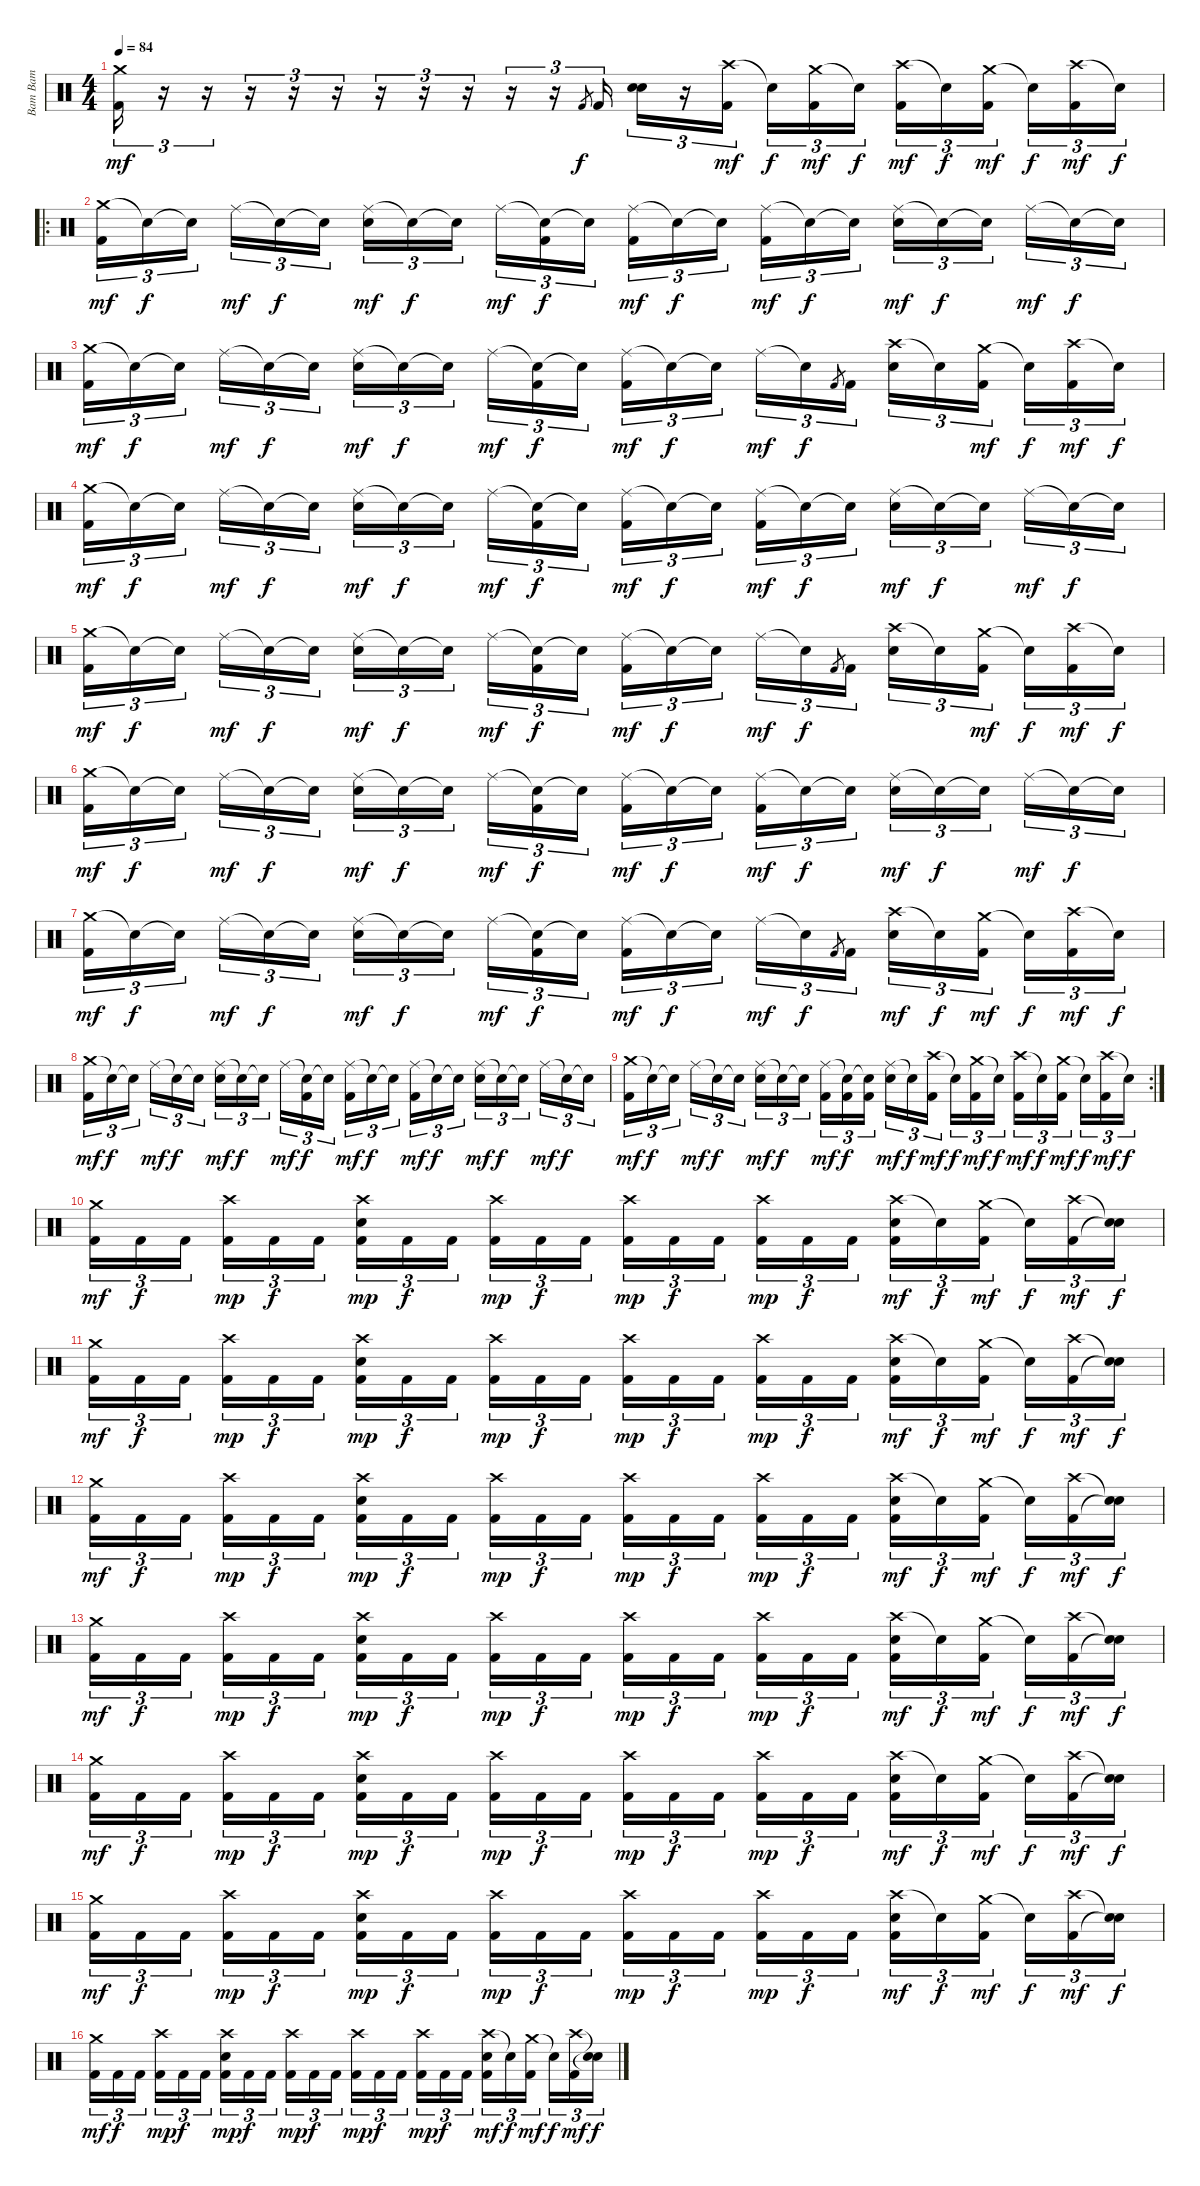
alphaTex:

\track ("Bam Bam" "Bam Bam") {instrument percussion}
\staff {score}
\articulation defaults
\ts (4 4)
\tempo 84
\clef neutral
\ks c
("Crash medium (hit)" "Kick (hit) 2").16{tu (3 2) dy mf} r.16{tu (3 2)} r.16{tu (3 2)} r.16{tu (3 2)} r.16{tu (3 2)} r.16{tu (3 2)} r.16{tu (3 2)} r.16{tu (3 2)} r.16{tu (3 2)} r.16{tu (3 2)} r.16{tu (3 2)} "Kick (hit) 2".8{gr dy f} "Kick (hit) 2".16{tu (3 2)} ("Electric Snare (hit)" "Electric Snare (hit)").16{tu (3 2)} r.16{tu (3 2)} ("Crash high (hit)" "Kick (hit) 2").16{tu (3 2) dy mf beam splitsecondary} "Snare (hit)"{t}.16{tu (3 2) dy f} ("Crash medium (hit)" "Kick (hit) 2").16{tu (3 2) dy mf} "Snare (hit)"{t}.16{tu (3 2) dy f} ("Crash high (hit)" "Kick (hit) 2").16{tu (3 2) dy mf} "Snare (hit)"{t}.16{tu (3 2) dy f} ("Crash medium (hit)" "Kick (hit) 2").16{tu (3 2) dy mf beam splitsecondary} "Snare (hit)"{t}.16{tu (3 2) dy f} ("Crash high (hit)" "Kick (hit) 2").16{tu (3 2) dy mf} "Snare (hit)"{t}.16{tu (3 2) dy f} |
\ro
("Crash medium (hit)" "Kick (hit) 2").16{tu (3 2) dy mf} "Snare (hit)"{t}.16{tu (3 2) dy f} "Snare (hit)"{t}.16{tu (3 2) beam splitsecondary} "Ride (middle)".16{tu (3 2) dy mf} "Snare (hit)"{t}.16{tu (3 2) dy f} "Snare (hit)"{t}.16{tu (3 2)} ("Ride (middle)" "Electric Snare (hit)").16{tu (3 2) dy mf} "Snare (hit)"{t}.16{tu (3 2) dy f} "Snare (hit)"{t}.16{tu (3 2) beam splitsecondary} "Ride (middle)".16{tu (3 2) dy mf} ("Snare (hit)"{t} "Kick (hit) 2").16{tu (3 2) dy f} "Snare (hit)"{t}.16{tu (3 2)} ("Ride (middle)" "Kick (hit) 2").16{tu (3 2) dy mf} "Snare (hit)"{t}.16{tu (3 2) dy f} "Snare (hit)"{t}.16{tu (3 2) beam splitsecondary} ("Ride (middle)" "Kick (hit) 2").16{tu (3 2) dy mf} "Snare (hit)"{t}.16{tu (3 2) dy f} "Snare (hit)"{t}.16{tu (3 2)} ("Ride (middle)" "Electric Snare (hit)").16{tu (3 2) dy mf} "Snare (hit)"{t}.16{tu (3 2) dy f} "Snare (hit)"{t}.16{tu (3 2) beam splitsecondary} "Ride (middle)".16{tu (3 2) dy mf} "Snare (hit)"{t}.16{tu (3 2) dy f} "Snare (hit)"{t}.16{tu (3 2)} |
("Crash medium (hit)" "Kick (hit) 2").16{tu (3 2) dy mf} "Snare (hit)"{t}.16{tu (3 2) dy f} "Snare (hit)"{t}.16{tu (3 2) beam splitsecondary} "Ride (middle)".16{tu (3 2) dy mf} "Snare (hit)"{t}.16{tu (3 2) dy f} "Snare (hit)"{t}.16{tu (3 2)} ("Ride (middle)" "Electric Snare (hit)").16{tu (3 2) dy mf} "Snare (hit)"{t}.16{tu (3 2) dy f} "Snare (hit)"{t}.16{tu (3 2) beam splitsecondary} "Ride (middle)".16{tu (3 2) dy mf} ("Snare (hit)"{t} "Kick (hit) 2").16{tu (3 2) dy f} "Snare (hit)"{t}.16{tu (3 2)} ("Ride (middle)" "Kick (hit) 2").16{tu (3 2) dy mf} "Snare (hit)"{t}.16{tu (3 2) dy f} "Snare (hit)"{t}.16{tu (3 2) beam splitsecondary} "Ride (middle)".16{tu (3 2) dy mf} "Snare (hit)"{t}.16{tu (3 2) dy f} "Kick (hit) 2".8{gr} "Kick (hit) 2".16{tu (3 2)} ("Crash high (hit)" "Electric Snare (hit)").16{tu (3 2)} "Snare (hit)"{t}.16{tu (3 2)} ("Crash medium (hit)" "Kick (hit) 2").16{tu (3 2) dy mf beam splitsecondary} "Snare (hit)"{t}.16{tu (3 2) dy f} ("Crash high (hit)" "Kick (hit) 2").16{tu (3 2) dy mf} "Snare (hit)"{t}.16{tu (3 2) dy f} |
("Crash medium (hit)" "Kick (hit) 2").16{tu (3 2) dy mf} "Snare (hit)"{t}.16{tu (3 2) dy f} "Snare (hit)"{t}.16{tu (3 2) beam splitsecondary} "Ride (middle)".16{tu (3 2) dy mf} "Snare (hit)"{t}.16{tu (3 2) dy f} "Snare (hit)"{t}.16{tu (3 2)} ("Ride (middle)" "Electric Snare (hit)").16{tu (3 2) dy mf} "Snare (hit)"{t}.16{tu (3 2) dy f} "Snare (hit)"{t}.16{tu (3 2) beam splitsecondary} "Ride (middle)".16{tu (3 2) dy mf} ("Snare (hit)"{t} "Kick (hit) 2").16{tu (3 2) dy f} "Snare (hit)"{t}.16{tu (3 2)} ("Ride (middle)" "Kick (hit) 2").16{tu (3 2) dy mf} "Snare (hit)"{t}.16{tu (3 2) dy f} "Snare (hit)"{t}.16{tu (3 2) beam splitsecondary} ("Ride (middle)" "Kick (hit) 2").16{tu (3 2) dy mf} "Snare (hit)"{t}.16{tu (3 2) dy f} "Snare (hit)"{t}.16{tu (3 2)} ("Ride (middle)" "Electric Snare (hit)").16{tu (3 2) dy mf} "Snare (hit)"{t}.16{tu (3 2) dy f} "Snare (hit)"{t}.16{tu (3 2) beam splitsecondary} "Ride (middle)".16{tu (3 2) dy mf} "Snare (hit)"{t}.16{tu (3 2) dy f} "Snare (hit)"{t}.16{tu (3 2)} |
("Crash medium (hit)" "Kick (hit) 2").16{tu (3 2) dy mf} "Snare (hit)"{t}.16{tu (3 2) dy f} "Snare (hit)"{t}.16{tu (3 2) beam splitsecondary} "Ride (middle)".16{tu (3 2) dy mf} "Snare (hit)"{t}.16{tu (3 2) dy f} "Snare (hit)"{t}.16{tu (3 2)} ("Ride (middle)" "Electric Snare (hit)").16{tu (3 2) dy mf} "Snare (hit)"{t}.16{tu (3 2) dy f} "Snare (hit)"{t}.16{tu (3 2) beam splitsecondary} "Ride (middle)".16{tu (3 2) dy mf} ("Snare (hit)"{t} "Kick (hit) 2").16{tu (3 2) dy f} "Snare (hit)"{t}.16{tu (3 2)} ("Ride (middle)" "Kick (hit) 2").16{tu (3 2) dy mf} "Snare (hit)"{t}.16{tu (3 2) dy f} "Snare (hit)"{t}.16{tu (3 2) beam splitsecondary} "Ride (middle)".16{tu (3 2) dy mf} "Snare (hit)"{t}.16{tu (3 2) dy f} "Kick (hit) 2".8{gr} "Kick (hit) 2".16{tu (3 2)} ("Crash high (hit)" "Electric Snare (hit)").16{tu (3 2)} "Snare (hit)"{t}.16{tu (3 2)} ("Crash medium (hit)" "Kick (hit) 2").16{tu (3 2) dy mf beam splitsecondary} "Snare (hit)"{t}.16{tu (3 2) dy f} ("Crash high (hit)" "Kick (hit) 2").16{tu (3 2) dy mf} "Snare (hit)"{t}.16{tu (3 2) dy f} |
("Crash medium (hit)" "Kick (hit) 2").16{tu (3 2) dy mf} "Snare (hit)"{t}.16{tu (3 2) dy f} "Snare (hit)"{t}.16{tu (3 2) beam splitsecondary} "Ride (middle)".16{tu (3 2) dy mf} "Snare (hit)"{t}.16{tu (3 2) dy f} "Snare (hit)"{t}.16{tu (3 2)} ("Ride (middle)" "Electric Snare (hit)").16{tu (3 2) dy mf} "Snare (hit)"{t}.16{tu (3 2) dy f} "Snare (hit)"{t}.16{tu (3 2) beam splitsecondary} "Ride (middle)".16{tu (3 2) dy mf} ("Snare (hit)"{t} "Kick (hit) 2").16{tu (3 2) dy f} "Snare (hit)"{t}.16{tu (3 2)} ("Ride (middle)" "Kick (hit) 2").16{tu (3 2) dy mf} "Snare (hit)"{t}.16{tu (3 2) dy f} "Snare (hit)"{t}.16{tu (3 2) beam splitsecondary} ("Ride (middle)" "Kick (hit) 2").16{tu (3 2) dy mf} "Snare (hit)"{t}.16{tu (3 2) dy f} "Snare (hit)"{t}.16{tu (3 2)} ("Ride (middle)" "Electric Snare (hit)").16{tu (3 2) dy mf} "Snare (hit)"{t}.16{tu (3 2) dy f} "Snare (hit)"{t}.16{tu (3 2) beam splitsecondary} "Ride (middle)".16{tu (3 2) dy mf} "Snare (hit)"{t}.16{tu (3 2) dy f} "Snare (hit)"{t}.16{tu (3 2)} |
("Crash medium (hit)" "Kick (hit) 2").16{tu (3 2) dy mf} "Snare (hit)"{t}.16{tu (3 2) dy f} "Snare (hit)"{t}.16{tu (3 2) beam splitsecondary} "Ride (middle)".16{tu (3 2) dy mf} "Snare (hit)"{t}.16{tu (3 2) dy f} "Snare (hit)"{t}.16{tu (3 2)} ("Ride (middle)" "Electric Snare (hit)").16{tu (3 2) dy mf} "Snare (hit)"{t}.16{tu (3 2) dy f} "Snare (hit)"{t}.16{tu (3 2) beam splitsecondary} "Ride (middle)".16{tu (3 2) dy mf} ("Snare (hit)"{t} "Kick (hit) 2").16{tu (3 2) dy f} "Snare (hit)"{t}.16{tu (3 2)} ("Ride (middle)" "Kick (hit) 2").16{tu (3 2) dy mf} "Snare (hit)"{t}.16{tu (3 2) dy f} "Snare (hit)"{t}.16{tu (3 2) beam splitsecondary} "Ride (middle)".16{tu (3 2) dy mf} "Snare (hit)"{t}.16{tu (3 2) dy f} "Kick (hit) 2".8{gr} "Kick (hit) 2".16{tu (3 2)} ("Crash high (hit)" "Electric Snare (hit)").16{tu (3 2) dy mf} "Snare (hit)"{t}.16{tu (3 2) dy f} ("Crash medium (hit)" "Kick (hit) 2").16{tu (3 2) dy mf beam splitsecondary} "Snare (hit)"{t}.16{tu (3 2) dy f} ("Crash high (hit)" "Kick (hit) 2").16{tu (3 2) dy mf} "Snare (hit)"{t}.16{tu (3 2) dy f} |
("Crash medium (hit)" "Kick (hit) 2").16{tu (3 2) dy mf} "Snare (hit)"{t}.16{tu (3 2) dy f} "Snare (hit)"{t}.16{tu (3 2) beam splitsecondary} "Ride (middle)".16{tu (3 2) dy mf} "Snare (hit)"{t}.16{tu (3 2) dy f} "Snare (hit)"{t}.16{tu (3 2)} ("Ride (middle)" "Electric Snare (hit)").16{tu (3 2) dy mf} "Snare (hit)"{t}.16{tu (3 2) dy f} "Snare (hit)"{t}.16{tu (3 2) beam splitsecondary} "Ride (middle)".16{tu (3 2) dy mf} ("Snare (hit)"{t} "Kick (hit) 2").16{tu (3 2) dy f} "Snare (hit)"{t}.16{tu (3 2)} ("Ride (middle)" "Kick (hit) 2").16{tu (3 2) dy mf} "Snare (hit)"{t}.16{tu (3 2) dy f} "Snare (hit)"{t}.16{tu (3 2) beam splitsecondary} ("Ride (middle)" "Kick (hit) 2").16{tu (3 2) dy mf} "Snare (hit)"{t}.16{tu (3 2) dy f} "Snare (hit)"{t}.16{tu (3 2)} ("Ride (middle)" "Electric Snare (hit)").16{tu (3 2) dy mf} "Snare (hit)"{t}.16{tu (3 2) dy f} "Snare (hit)"{t}.16{tu (3 2) beam splitsecondary} "Ride (middle)".16{tu (3 2) dy mf} "Snare (hit)"{t}.16{tu (3 2) dy f} "Snare (hit)"{t}.16{tu (3 2)} |
\rc 2
("Crash medium (hit)" "Kick (hit) 2").16{tu (3 2) dy mf} "Snare (hit)"{t}.16{tu (3 2) dy f} "Snare (hit)"{t}.16{tu (3 2) beam splitsecondary} "Ride (middle)".16{tu (3 2) dy mf} "Snare (hit)"{t}.16{tu (3 2) dy f} "Snare (hit)"{t}.16{tu (3 2)} ("Ride (middle)" "Electric Snare (hit)").16{tu (3 2) dy mf} "Snare (hit)"{t}.16{tu (3 2) dy f} "Snare (hit)"{t}.16{tu (3 2) beam splitsecondary} ("Ride (middle)" "Kick (hit) 2").16{tu (3 2) dy mf} ("Snare (hit)"{t} "Kick (hit) 2").16{tu (3 2) dy f} ("Snare (hit)"{t} "Kick (hit) 2").16{tu (3 2)} ("Ride (middle)" "Electric Snare (hit)").16{tu (3 2) dy mf} "Snare (hit)"{t}.16{tu (3 2) dy f} ("Crash high (hit)" "Kick (hit) 2").16{tu (3 2) dy mf beam splitsecondary} "Snare (hit)"{t}.16{tu (3 2) dy f} ("Crash medium (hit)" "Kick (hit) 2").16{tu (3 2) dy mf} "Snare (hit)"{t}.16{tu (3 2) dy f} ("Crash high (hit)" "Kick (hit) 2").16{tu (3 2) dy mf} "Snare (hit)"{t}.16{tu (3 2) dy f} ("Crash medium (hit)" "Kick (hit) 2").16{tu (3 2) dy mf beam splitsecondary} "Snare (hit)"{t}.16{tu (3 2) dy f} ("Crash high (hit)" "Kick (hit) 2").16{tu (3 2) dy mf} "Snare (hit)"{t}.16{tu (3 2) dy f} |
("Crash medium (hit)" "Kick (hit) 2").16{tu (3 2) dy mf} "Kick (hit) 2".16{tu (3 2) dy f} "Kick (hit) 2".16{tu (3 2) beam splitsecondary} ("Crash high (hit)" "Kick (hit) 2").16{tu (3 2) dy mp} "Kick (hit) 2".16{tu (3 2) dy f} "Kick (hit) 2".16{tu (3 2)} ("Crash high (hit)" "Electric Snare (hit)" "Kick (hit) 2").16{tu (3 2) dy mp} "Kick (hit) 2".16{tu (3 2) dy f} "Kick (hit) 2".16{tu (3 2) beam splitsecondary} ("Crash high (hit)" "Kick (hit) 2").16{tu (3 2) dy mp} "Kick (hit) 2".16{tu (3 2) dy f} "Kick (hit) 2".16{tu (3 2)} ("Crash high (hit)" "Kick (hit) 2").16{tu (3 2) dy mp} "Kick (hit) 2".16{tu (3 2) dy f} "Kick (hit) 2".16{tu (3 2) beam splitsecondary} ("Crash high (hit)" "Kick (hit) 2").16{tu (3 2) dy mp} "Kick (hit) 2".16{tu (3 2) dy f} "Kick (hit) 2".16{tu (3 2)} ("Crash high (hit)" "Electric Snare (hit)" "Kick (hit) 2").16{tu (3 2) dy mf} "Snare (hit)"{t}.16{tu (3 2) dy f} ("Crash medium (hit)" "Kick (hit) 2").16{tu (3 2) dy mf beam splitsecondary} "Snare (hit)"{t}.16{tu (3 2) dy f} ("Crash high (hit)" "Kick (hit) 2").16{tu (3 2) dy mf} ("Snare (hit)"{t} "Snare (hit)"{t}).16{tu (3 2) dy f} |
("Crash medium (hit)" "Kick (hit) 2").16{tu (3 2) dy mf} "Kick (hit) 2".16{tu (3 2) dy f} "Kick (hit) 2".16{tu (3 2) beam splitsecondary} ("Crash high (hit)" "Kick (hit) 2").16{tu (3 2) dy mp} "Kick (hit) 2".16{tu (3 2) dy f} "Kick (hit) 2".16{tu (3 2)} ("Crash high (hit)" "Electric Snare (hit)" "Kick (hit) 2").16{tu (3 2) dy mp} "Kick (hit) 2".16{tu (3 2) dy f} "Kick (hit) 2".16{tu (3 2) beam splitsecondary} ("Crash high (hit)" "Kick (hit) 2").16{tu (3 2) dy mp} "Kick (hit) 2".16{tu (3 2) dy f} "Kick (hit) 2".16{tu (3 2)} ("Crash high (hit)" "Kick (hit) 2").16{tu (3 2) dy mp} "Kick (hit) 2".16{tu (3 2) dy f} "Kick (hit) 2".16{tu (3 2) beam splitsecondary} ("Crash high (hit)" "Kick (hit) 2").16{tu (3 2) dy mp} "Kick (hit) 2".16{tu (3 2) dy f} "Kick (hit) 2".16{tu (3 2)} ("Crash high (hit)" "Electric Snare (hit)" "Kick (hit) 2").16{tu (3 2) dy mf} "Snare (hit)"{t}.16{tu (3 2) dy f} ("Crash medium (hit)" "Kick (hit) 2").16{tu (3 2) dy mf beam splitsecondary} "Snare (hit)"{t}.16{tu (3 2) dy f} ("Crash high (hit)" "Kick (hit) 2").16{tu (3 2) dy mf} ("Snare (hit)"{t} "Snare (hit)"{t}).16{tu (3 2) dy f} |
("Crash medium (hit)" "Kick (hit) 2").16{tu (3 2) dy mf} "Kick (hit) 2".16{tu (3 2) dy f} "Kick (hit) 2".16{tu (3 2) beam splitsecondary} ("Crash high (hit)" "Kick (hit) 2").16{tu (3 2) dy mp} "Kick (hit) 2".16{tu (3 2) dy f} "Kick (hit) 2".16{tu (3 2)} ("Crash high (hit)" "Electric Snare (hit)" "Kick (hit) 2").16{tu (3 2) dy mp} "Kick (hit) 2".16{tu (3 2) dy f} "Kick (hit) 2".16{tu (3 2) beam splitsecondary} ("Crash high (hit)" "Kick (hit) 2").16{tu (3 2) dy mp} "Kick (hit) 2".16{tu (3 2) dy f} "Kick (hit) 2".16{tu (3 2)} ("Crash high (hit)" "Kick (hit) 2").16{tu (3 2) dy mp} "Kick (hit) 2".16{tu (3 2) dy f} "Kick (hit) 2".16{tu (3 2) beam splitsecondary} ("Crash high (hit)" "Kick (hit) 2").16{tu (3 2) dy mp} "Kick (hit) 2".16{tu (3 2) dy f} "Kick (hit) 2".16{tu (3 2)} ("Crash high (hit)" "Electric Snare (hit)" "Kick (hit) 2").16{tu (3 2) dy mf} "Snare (hit)"{t}.16{tu (3 2) dy f} ("Crash medium (hit)" "Kick (hit) 2").16{tu (3 2) dy mf beam splitsecondary} "Snare (hit)"{t}.16{tu (3 2) dy f} ("Crash high (hit)" "Kick (hit) 2").16{tu (3 2) dy mf} ("Snare (hit)"{t} "Snare (hit)"{t}).16{tu (3 2) dy f} |
("Crash medium (hit)" "Kick (hit) 2").16{tu (3 2) dy mf} "Kick (hit) 2".16{tu (3 2) dy f} "Kick (hit) 2".16{tu (3 2) beam splitsecondary} ("Crash high (hit)" "Kick (hit) 2").16{tu (3 2) dy mp} "Kick (hit) 2".16{tu (3 2) dy f} "Kick (hit) 2".16{tu (3 2)} ("Crash high (hit)" "Electric Snare (hit)" "Kick (hit) 2").16{tu (3 2) dy mp} "Kick (hit) 2".16{tu (3 2) dy f} "Kick (hit) 2".16{tu (3 2) beam splitsecondary} ("Crash high (hit)" "Kick (hit) 2").16{tu (3 2) dy mp} "Kick (hit) 2".16{tu (3 2) dy f} "Kick (hit) 2".16{tu (3 2)} ("Crash high (hit)" "Kick (hit) 2").16{tu (3 2) dy mp} "Kick (hit) 2".16{tu (3 2) dy f} "Kick (hit) 2".16{tu (3 2) beam splitsecondary} ("Crash high (hit)" "Kick (hit) 2").16{tu (3 2) dy mp} "Kick (hit) 2".16{tu (3 2) dy f} "Kick (hit) 2".16{tu (3 2)} ("Crash high (hit)" "Electric Snare (hit)" "Kick (hit) 2").16{tu (3 2) dy mf} "Snare (hit)"{t}.16{tu (3 2) dy f} ("Crash medium (hit)" "Kick (hit) 2").16{tu (3 2) dy mf beam splitsecondary} "Snare (hit)"{t}.16{tu (3 2) dy f} ("Crash high (hit)" "Kick (hit) 2").16{tu (3 2) dy mf} ("Snare (hit)"{t} "Snare (hit)"{t}).16{tu (3 2) dy f} |
("Crash medium (hit)" "Kick (hit) 2").16{tu (3 2) dy mf} "Kick (hit) 2".16{tu (3 2) dy f} "Kick (hit) 2".16{tu (3 2) beam splitsecondary} ("Crash high (hit)" "Kick (hit) 2").16{tu (3 2) dy mp} "Kick (hit) 2".16{tu (3 2) dy f} "Kick (hit) 2".16{tu (3 2)} ("Crash high (hit)" "Electric Snare (hit)" "Kick (hit) 2").16{tu (3 2) dy mp} "Kick (hit) 2".16{tu (3 2) dy f} "Kick (hit) 2".16{tu (3 2) beam splitsecondary} ("Crash high (hit)" "Kick (hit) 2").16{tu (3 2) dy mp} "Kick (hit) 2".16{tu (3 2) dy f} "Kick (hit) 2".16{tu (3 2)} ("Crash high (hit)" "Kick (hit) 2").16{tu (3 2) dy mp} "Kick (hit) 2".16{tu (3 2) dy f} "Kick (hit) 2".16{tu (3 2) beam splitsecondary} ("Crash high (hit)" "Kick (hit) 2").16{tu (3 2) dy mp} "Kick (hit) 2".16{tu (3 2) dy f} "Kick (hit) 2".16{tu (3 2)} ("Crash high (hit)" "Electric Snare (hit)" "Kick (hit) 2").16{tu (3 2) dy mf} "Snare (hit)"{t}.16{tu (3 2) dy f} ("Crash medium (hit)" "Kick (hit) 2").16{tu (3 2) dy mf beam splitsecondary} "Snare (hit)"{t}.16{tu (3 2) dy f} ("Crash high (hit)" "Kick (hit) 2").16{tu (3 2) dy mf} ("Snare (hit)"{t} "Snare (hit)"{t}).16{tu (3 2) dy f} |
("Crash medium (hit)" "Kick (hit) 2").16{tu (3 2) dy mf} "Kick (hit) 2".16{tu (3 2) dy f} "Kick (hit) 2".16{tu (3 2) beam splitsecondary} ("Crash high (hit)" "Kick (hit) 2").16{tu (3 2) dy mp} "Kick (hit) 2".16{tu (3 2) dy f} "Kick (hit) 2".16{tu (3 2)} ("Crash high (hit)" "Electric Snare (hit)" "Kick (hit) 2").16{tu (3 2) dy mp} "Kick (hit) 2".16{tu (3 2) dy f} "Kick (hit) 2".16{tu (3 2) beam splitsecondary} ("Crash high (hit)" "Kick (hit) 2").16{tu (3 2) dy mp} "Kick (hit) 2".16{tu (3 2) dy f} "Kick (hit) 2".16{tu (3 2)} ("Crash high (hit)" "Kick (hit) 2").16{tu (3 2) dy mp} "Kick (hit) 2".16{tu (3 2) dy f} "Kick (hit) 2".16{tu (3 2) beam splitsecondary} ("Crash high (hit)" "Kick (hit) 2").16{tu (3 2) dy mp} "Kick (hit) 2".16{tu (3 2) dy f} "Kick (hit) 2".16{tu (3 2)} ("Crash high (hit)" "Electric Snare (hit)" "Kick (hit) 2").16{tu (3 2) dy mf} "Snare (hit)"{t}.16{tu (3 2) dy f} ("Crash medium (hit)" "Kick (hit) 2").16{tu (3 2) dy mf beam splitsecondary} "Snare (hit)"{t}.16{tu (3 2) dy f} ("Crash high (hit)" "Kick (hit) 2").16{tu (3 2) dy mf} ("Snare (hit)"{t} "Snare (hit)"{t}).16{tu (3 2) dy f} |
("Crash medium (hit)" "Kick (hit) 2").16{tu (3 2) dy mf} "Kick (hit) 2".16{tu (3 2) dy f} "Kick (hit) 2".16{tu (3 2) beam splitsecondary} ("Crash high (hit)" "Kick (hit) 2").16{tu (3 2) dy mp} "Kick (hit) 2".16{tu (3 2) dy f} "Kick (hit) 2".16{tu (3 2)} ("Crash high (hit)" "Electric Snare (hit)" "Kick (hit) 2").16{tu (3 2) dy mp} "Kick (hit) 2".16{tu (3 2) dy f} "Kick (hit) 2".16{tu (3 2) beam splitsecondary} ("Crash high (hit)" "Kick (hit) 2").16{tu (3 2) dy mp} "Kick (hit) 2".16{tu (3 2) dy f} "Kick (hit) 2".16{tu (3 2)} ("Crash high (hit)" "Kick (hit) 2").16{tu (3 2) dy mp} "Kick (hit) 2".16{tu (3 2) dy f} "Kick (hit) 2".16{tu (3 2) beam splitsecondary} ("Crash high (hit)" "Kick (hit) 2").16{tu (3 2) dy mp} "Kick (hit) 2".16{tu (3 2) dy f} "Kick (hit) 2".16{tu (3 2)} ("Crash high (hit)" "Electric Snare (hit)" "Kick (hit) 2").16{tu (3 2) dy mf} "Snare (hit)"{t}.16{tu (3 2) dy f} ("Crash medium (hit)" "Kick (hit) 2").16{tu (3 2) dy mf beam splitsecondary} "Snare (hit)"{t}.16{tu (3 2) dy f} ("Crash high (hit)" "Kick (hit) 2").16{tu (3 2) dy mf} ("Snare (hit)"{t} "Snare (hit)"{t}).16{tu (3 2) dy f}
